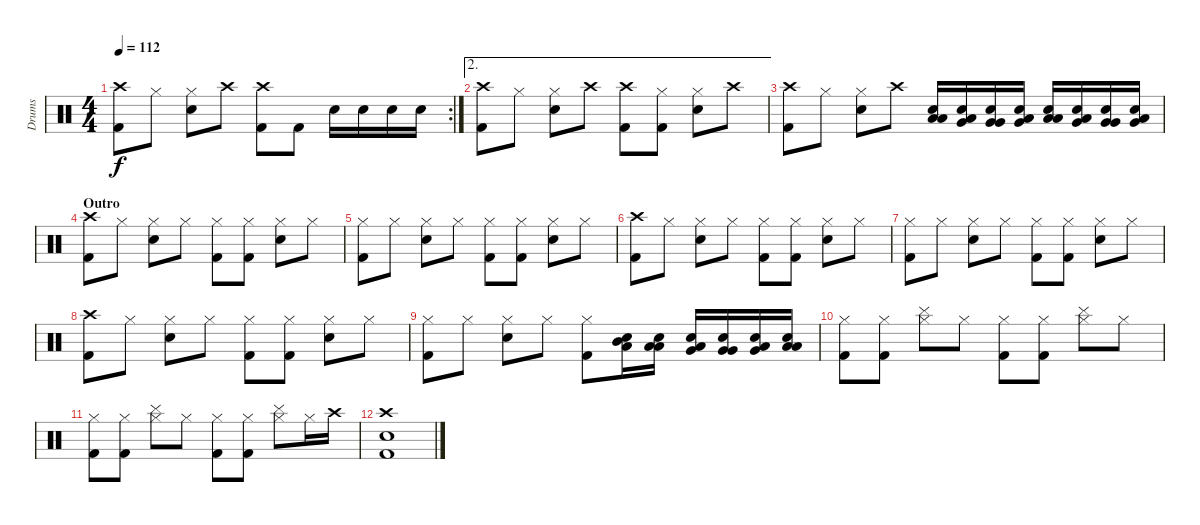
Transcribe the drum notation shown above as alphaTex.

\track ("Drums" "Drums") {instrument percussion}
\staff {score}
\articulation defaults
\rc 2
\ts (4 4)
\tempo 112
\clef neutral
\ks c
("Crash high (hit)" "Kick (hit) 2").8{dy f} "Hi-Hat (closed)".8 ("Hi-Hat (closed)" "Electric Snare (hit)").8 "Crash high (hit)".8 ("Crash high (hit)" "Kick (hit) 2").8 "Kick (hit) 2".8 "Electric Snare (hit)".16 "Electric Snare (hit)".16 "Electric Snare (hit)".16 "Electric Snare (hit)".16 |
\ae 2
("Crash high (hit)" "Kick (hit) 2").8 "Hi-Hat (closed)".8 ("Hi-Hat (closed)" "Electric Snare (hit)").8 "Crash high (hit)".8 ("Crash high (hit)" "Kick (hit) 2").8 ("Hi-Hat (closed)" "Kick (hit) 2").8 ("Hi-Hat (closed)" "Electric Snare (hit)").8 "Crash high (hit)".8 |
("Crash high (hit)" "Kick (hit) 2").8 "Hi-Hat (closed)".8 ("Hi-Hat (closed)" "Electric Snare (hit)").8 "Crash high (hit)".8 ("Low Tom (hit)" "Low Tom (hit)" "Electric Snare (hit)").16 ("Low Tom (hit)" "Very Low Tom (hit)" "Electric Snare (hit)").16 ("Very Low Tom (hit)" "Very Low Tom (hit)" "Electric Snare (hit)").16 ("Very Low Tom (hit)" "Low Floor Tom (hit)" "Electric Snare (hit)").16 ("Low Tom (hit)" "Low Tom (hit)" "Electric Snare (hit)").16 ("Low Tom (hit)" "Very Low Tom (hit)" "Electric Snare (hit)").16 ("Very Low Tom (hit)" "Very Low Tom (hit)" "Electric Snare (hit)").16 ("Very Low Tom (hit)" "Low Floor Tom (hit)" "Electric Snare (hit)").16 |
\section ("" "Outro")
("Crash high (hit)" "Kick (hit) 2").8 "Hi-Hat (closed)".8 ("Hi-Hat (closed)" "Electric Snare (hit)").8 "Hi-Hat (closed)".8 ("Hi-Hat (closed)" "Kick (hit) 2").8 ("Hi-Hat (closed)" "Kick (hit) 2").8 ("Hi-Hat (closed)" "Electric Snare (hit)").8 "Hi-Hat (closed)".8 |
("Hi-Hat (closed)" "Kick (hit) 2").8 "Hi-Hat (closed)".8 ("Hi-Hat (closed)" "Electric Snare (hit)").8 "Hi-Hat (closed)".8 ("Hi-Hat (closed)" "Kick (hit) 2").8 ("Hi-Hat (closed)" "Kick (hit) 2").8 ("Hi-Hat (closed)" "Electric Snare (hit)").8 "Hi-Hat (closed)".8 |
("Crash high (hit)" "Kick (hit) 2").8 "Hi-Hat (closed)".8 ("Hi-Hat (closed)" "Electric Snare (hit)").8 "Hi-Hat (closed)".8 ("Hi-Hat (closed)" "Kick (hit) 2").8 ("Hi-Hat (closed)" "Kick (hit) 2").8 ("Hi-Hat (closed)" "Electric Snare (hit)").8 "Hi-Hat (closed)".8 |
("Hi-Hat (closed)" "Kick (hit) 2").8 "Hi-Hat (closed)".8 ("Hi-Hat (closed)" "Electric Snare (hit)").8 "Hi-Hat (closed)".8 ("Hi-Hat (closed)" "Kick (hit) 2").8 ("Hi-Hat (closed)" "Kick (hit) 2").8 ("Hi-Hat (closed)" "Electric Snare (hit)").8 "Hi-Hat (closed)".8 |
("Crash high (hit)" "Kick (hit) 2").8 "Hi-Hat (closed)".8 ("Hi-Hat (closed)" "Electric Snare (hit)").8 "Hi-Hat (closed)".8 ("Hi-Hat (closed)" "Kick (hit) 2").8 ("Hi-Hat (closed)" "Kick (hit) 2").8 ("Hi-Hat (closed)" "Electric Snare (hit)").8 "Hi-Hat (closed)".8 |
("Hi-Hat (closed)" "Kick (hit) 2").8 "Hi-Hat (closed)".8 ("Hi-Hat (closed)" "Electric Snare (hit)").8 "Hi-Hat (closed)".8 ("Hi-Hat (closed)" "Kick (hit) 2").8 ("Low Tom (hit)" "Mid Tom (hit)" "Electric Snare (hit)").16 ("Low Tom (hit)" "Low Tom (hit)" "Electric Snare (hit)").16 ("Low Tom (hit)" "Very Low Tom (hit)" "Electric Snare (hit)").16 ("Very Low Tom (hit)" "Very Low Tom (hit)" "Electric Snare (hit)").16 ("Very Low Tom (hit)" "Low Floor Tom (hit)" "Electric Snare (hit)").16 ("Low Floor Tom (hit)" "Low Floor Tom (hit)" "Electric Snare (hit)").16 |
("Hi-Hat (closed)" "Kick (hit) 2").8 ("Hi-Hat (closed)" "Kick (hit) 2").8 ("Hi-Hat (closed)" "Cymbal (hit)").8 "Hi-Hat (closed)".8 ("Hi-Hat (closed)" "Kick (hit) 2").8 ("Hi-Hat (closed)" "Kick (hit) 2").8 ("Hi-Hat (closed)" "Cymbal (hit)").8 "Hi-Hat (closed)".8 |
("Hi-Hat (closed)" "Kick (hit) 2").8 ("Hi-Hat (closed)" "Kick (hit) 2").8 ("Hi-Hat (closed)" "Cymbal (hit)").8 "Hi-Hat (closed)".8 ("Hi-Hat (closed)" "Kick (hit) 2").8 ("Hi-Hat (closed)" "Kick (hit) 2").8 ("Hi-Hat (closed)" "Cymbal (hit)").8 "Hi-Hat (closed)".16 "Crash high (hit)".16 |
("Crash high (hit)" "Snare (hit) 2" "Kick (hit) 2").1
